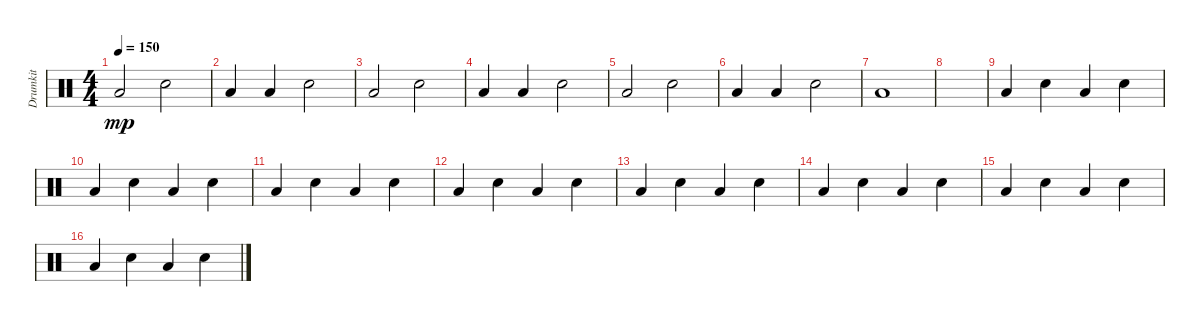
\track ("Drumkit" "Drumkit") {instrument percussion}
\staff {score}
\articulation defaults
\ts (4 4)
\tempo 150
\clef neutral
\ks c "Low Floor Tom (hit)".2{dy mp} "Snare (hit) 2".2
|
"Low Floor Tom (hit)".4 "Low Floor Tom (hit)".4 "Snare (hit) 2".2 |
"Low Floor Tom (hit)".2 "Snare (hit) 2".2 |
"Low Floor Tom (hit)".4 "Low Floor Tom (hit)".4 "Snare (hit) 2".2 |
"Low Floor Tom (hit)".2 "Snare (hit) 2".2 |
"Low Floor Tom (hit)".4 "Low Floor Tom (hit)".4 "Snare (hit) 2".2 |
"Low Floor Tom (hit)".1 |
|
"Low Floor Tom (hit)".4 "Snare (hit) 2".4 "Low Floor Tom (hit)".4 "Snare (hit) 2".4 |
"Low Floor Tom (hit)".4 "Snare (hit) 2".4 "Low Floor Tom (hit)".4 "Snare (hit) 2".4 |
"Low Floor Tom (hit)".4 "Snare (hit) 2".4 "Low Floor Tom (hit)".4 "Snare (hit) 2".4 |
"Low Floor Tom (hit)".4 "Snare (hit) 2".4 "Low Floor Tom (hit)".4 "Snare (hit) 2".4 |
"Low Floor Tom (hit)".4 "Snare (hit) 2".4 "Low Floor Tom (hit)".4 "Snare (hit) 2".4 |
"Low Floor Tom (hit)".4 "Snare (hit) 2".4 "Low Floor Tom (hit)".4 "Snare (hit) 2".4 |
"Low Floor Tom (hit)".4 "Snare (hit) 2".4 "Low Floor Tom (hit)".4 "Snare (hit) 2".4 |
"Low Floor Tom (hit)".4 "Snare (hit) 2".4 "Low Floor Tom (hit)".4 "Snare (hit) 2".4
